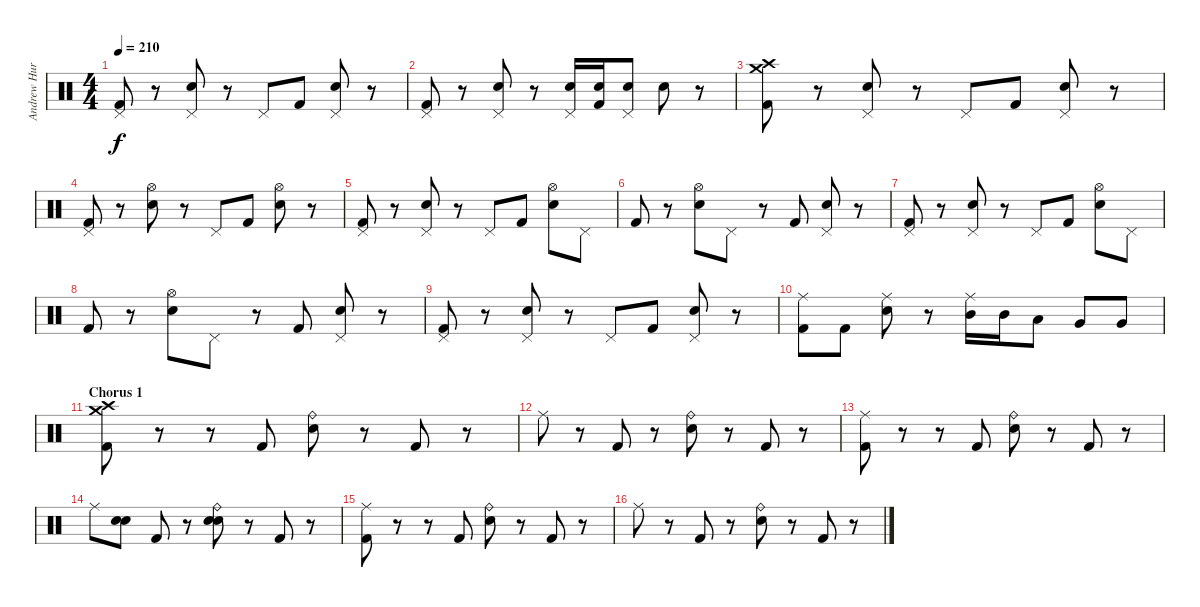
\track ("Andrew Hurley (Drums)" "Andrew Hur") {instrument percussion}
\staff {score}
\articulation defaults
\ts (4 4)
\tempo 210
\clef neutral
\ks c
("Pedal Hi-Hat (hit)" "Kick (hit) 2").8{dy f} r.8 ("Pedal Hi-Hat (hit)" "Electric Snare (hit)").8 r.8 "Pedal Hi-Hat (hit)".8 "Kick (hit) 2".8 ("Pedal Hi-Hat (hit)" "Electric Snare (hit)").8 r.8 |
("Pedal Hi-Hat (hit)" "Kick (hit) 2").8 r.8 ("Pedal Hi-Hat (hit)" "Electric Snare (hit)").8 r.8 ("Pedal Hi-Hat (hit)" "Electric Snare (hit)").16 ("Electric Snare (hit)" "Kick (hit) 2").16 ("Pedal Hi-Hat (hit)" "Electric Snare (hit)").8 "Electric Snare (hit)".8 r.8 |
("Crash high (hit)" "Crash medium (hit)" "Kick (hit) 2").8 r.8 ("Pedal Hi-Hat (hit)" "Electric Snare (hit)").8 r.8 "Pedal Hi-Hat (hit)".8 "Kick (hit) 2".8 ("Pedal Hi-Hat (hit)" "Electric Snare (hit)").8 r.8 |
("Pedal Hi-Hat (hit)" "Kick (hit) 2").8 r.8 ("Hi-Hat (open)" "Electric Snare (hit)").8 r.8 "Pedal Hi-Hat (hit)".8 "Kick (hit) 2".8 ("Hi-Hat (open)" "Electric Snare (hit)").8 r.8 |
("Pedal Hi-Hat (hit)" "Kick (hit) 2").8 r.8 ("Pedal Hi-Hat (hit)" "Electric Snare (hit)").8 r.8 "Pedal Hi-Hat (hit)".8 "Kick (hit) 2".8 ("Hi-Hat (open)" "Electric Snare (hit)").8 "Pedal Hi-Hat (hit)".8 |
"Kick (hit) 2".8 r.8 ("Hi-Hat (open)" "Electric Snare (hit)").8 "Pedal Hi-Hat (hit)".8 r.8 "Kick (hit) 2".8 ("Pedal Hi-Hat (hit)" "Electric Snare (hit)").8 r.8 |
("Pedal Hi-Hat (hit)" "Kick (hit) 2").8 r.8 ("Pedal Hi-Hat (hit)" "Electric Snare (hit)").8 r.8 "Pedal Hi-Hat (hit)".8 "Kick (hit) 2".8 ("Hi-Hat (open)" "Electric Snare (hit)").8 "Pedal Hi-Hat (hit)".8 |
"Kick (hit) 2".8 r.8 ("Hi-Hat (open)" "Electric Snare (hit)").8 "Pedal Hi-Hat (hit)".8 r.8 "Kick (hit) 2".8 ("Pedal Hi-Hat (hit)" "Electric Snare (hit)").8 r.8 |
("Pedal Hi-Hat (hit)" "Kick (hit) 2").8 r.8 ("Pedal Hi-Hat (hit)" "Electric Snare (hit)").8 r.8 "Pedal Hi-Hat (hit)".8 "Kick (hit) 2".8 ("Pedal Hi-Hat (hit)" "Electric Snare (hit)").8 r.8 |
("Ride (middle)" "Kick (hit) 2").8 "Kick (hit) 2".8 ("Ride (middle)" "Electric Snare (hit)").8 r.8 ("Ride (middle)" "Mid Tom (hit)").16 "Mid Tom (hit)".16 "Low Tom (hit)".8 "Very Low Tom (hit)".8 "Very Low Tom (hit)".8 |
\section ("" "Chorus 1")
("Crash medium (hit)" "Crash high (hit)" "Kick (hit) 2").8 r.8 r.8 "Kick (hit) 2".8 ("Ride (bell)" "Electric Snare (hit)").8 r.8 "Kick (hit) 2".8 r.8 |
"Ride (middle)".8 r.8 "Kick (hit) 2".8 r.8 ("Ride (bell)" "Electric Snare (hit)").8 r.8 "Kick (hit) 2".8 r.8 |
("Ride (middle)" "Kick (hit) 2").8 r.8 r.8 "Kick (hit) 2".8 ("Ride (bell)" "Electric Snare (hit)").8 r.8 "Kick (hit) 2".8 r.8 |
"Ride (middle)".8 ("Snare (hit) 2" "Electric Snare (hit)").8 "Kick (hit) 2".8 r.8 ("Ride (bell)" "Snare (hit) 2" "Electric Snare (hit)").8 r.8 "Kick (hit) 2".8 r.8 |
("Ride (middle)" "Kick (hit) 2").8 r.8 r.8 "Kick (hit) 2".8 ("Ride (bell)" "Electric Snare (hit)").8 r.8 "Kick (hit) 2".8 r.8 |
"Ride (middle)".8 r.8 "Kick (hit) 2".8 r.8 ("Ride (bell)" "Electric Snare (hit)").8 r.8 "Kick (hit) 2".8 r.8
